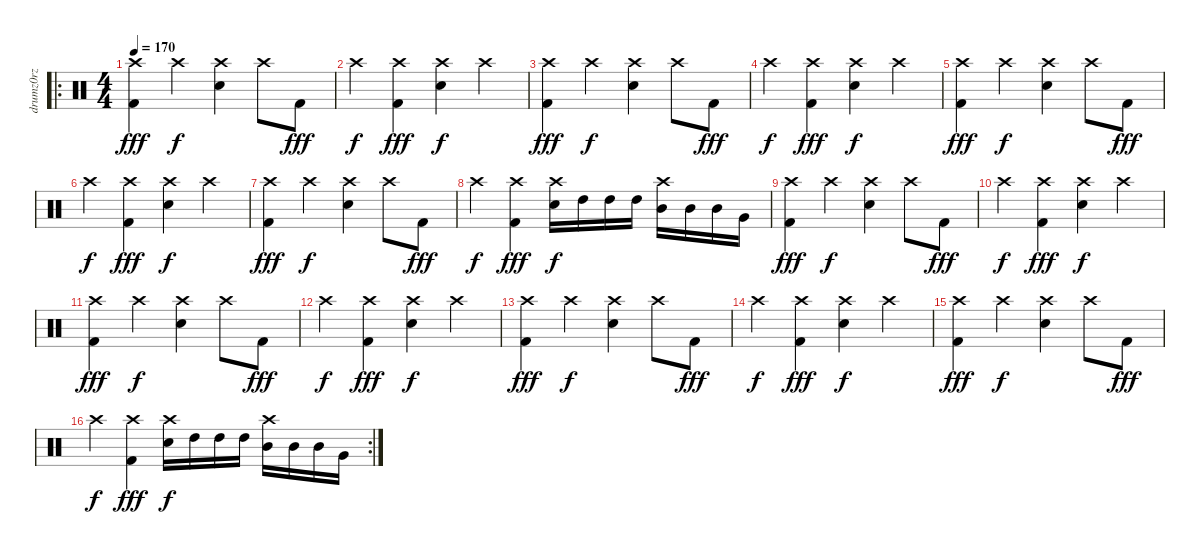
\track ("drumz0rz" "drumz0rz") {instrument percussion}
\staff {score}
\articulation defaults
\ro
\ts (4 4)
\tempo 170
\clef neutral
\ks c
("Crash high (hit)" "Kick (hit) 2").4{dy fff} "Crash high (hit)".4{dy f} ("Crash high (hit)" "Electric Snare (hit)").4 "Crash high (hit)".8 "Kick (hit) 2".8{dy fff} |
"Crash high (hit)".4{dy f} ("Crash high (hit)" "Kick (hit) 2").4{dy fff} ("Crash high (hit)" "Electric Snare (hit)").4{dy f} "Crash high (hit)".4 |
("Crash high (hit)" "Kick (hit) 2").4{dy fff} "Crash high (hit)".4{dy f} ("Crash high (hit)" "Electric Snare (hit)").4 "Crash high (hit)".8 "Kick (hit) 2".8{dy fff} |
"Crash high (hit)".4{dy f} ("Crash high (hit)" "Kick (hit) 2").4{dy fff} ("Crash high (hit)" "Electric Snare (hit)").4{dy f} "Crash high (hit)".4 |
("Crash high (hit)" "Kick (hit) 2").4{dy fff} "Crash high (hit)".4{dy f} ("Crash high (hit)" "Electric Snare (hit)").4 "Crash high (hit)".8 "Kick (hit) 2".8{dy fff} |
"Crash high (hit)".4{dy f} ("Crash high (hit)" "Kick (hit) 2").4{dy fff} ("Crash high (hit)" "Electric Snare (hit)").4{dy f} "Crash high (hit)".4 |
("Crash high (hit)" "Kick (hit) 2").4{dy fff} "Crash high (hit)".4{dy f} ("Crash high (hit)" "Electric Snare (hit)").4 "Crash high (hit)".8 "Kick (hit) 2".8{dy fff} |
"Crash high (hit)".4{dy f} ("Crash high (hit)" "Kick (hit) 2").4{dy fff} ("Crash high (hit)" "Electric Snare (hit)").16{dy f} "High Tom (hit)".16 "High Tom (hit)".16 "High Tom (hit)".16 ("Crash high (hit)" "Mid Tom (hit)").16 "Mid Tom (hit)".16 "Mid Tom (hit)".16 "Very Low Tom (hit)".16 |
("Crash high (hit)" "Kick (hit) 2").4{dy fff} "Crash high (hit)".4{dy f} ("Crash high (hit)" "Electric Snare (hit)").4 "Crash high (hit)".8 "Kick (hit) 2".8{dy fff} |
"Crash high (hit)".4{dy f} ("Crash high (hit)" "Kick (hit) 2").4{dy fff} ("Crash high (hit)" "Electric Snare (hit)").4{dy f} "Crash high (hit)".4 |
("Crash high (hit)" "Kick (hit) 2").4{dy fff} "Crash high (hit)".4{dy f} ("Crash high (hit)" "Electric Snare (hit)").4 "Crash high (hit)".8 "Kick (hit) 2".8{dy fff} |
"Crash high (hit)".4{dy f} ("Crash high (hit)" "Kick (hit) 2").4{dy fff} ("Crash high (hit)" "Electric Snare (hit)").4{dy f} "Crash high (hit)".4 |
("Crash high (hit)" "Kick (hit) 2").4{dy fff} "Crash high (hit)".4{dy f} ("Crash high (hit)" "Electric Snare (hit)").4 "Crash high (hit)".8 "Kick (hit) 2".8{dy fff} |
"Crash high (hit)".4{dy f} ("Crash high (hit)" "Kick (hit) 2").4{dy fff} ("Crash high (hit)" "Electric Snare (hit)").4{dy f} "Crash high (hit)".4 |
("Crash high (hit)" "Kick (hit) 2").4{dy fff} "Crash high (hit)".4{dy f} ("Crash high (hit)" "Electric Snare (hit)").4 "Crash high (hit)".8 "Kick (hit) 2".8{dy fff} |
\rc 2 "Crash high (hit)".4{dy f}
("Crash high (hit)" "Kick (hit) 2").4{dy fff} ("Crash high (hit)" "Electric Snare (hit)").16{dy f} "High Tom (hit)".16 "High Tom (hit)".16 "High Tom (hit)".16 ("Crash high (hit)" "Mid Tom (hit)").16 "Mid Tom (hit)".16 "Mid Tom (hit)".16 "Very Low Tom (hit)".16
